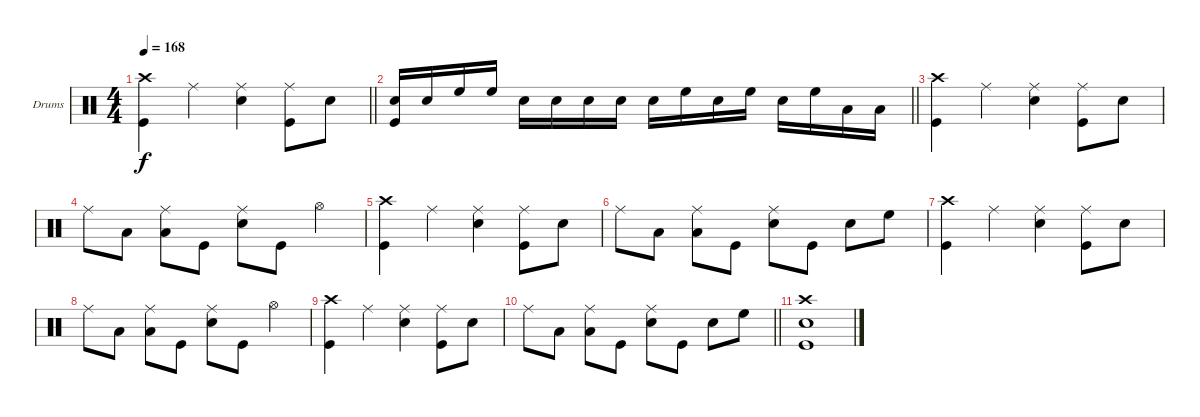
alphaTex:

\bracketExtendMode groupsimilarinstruments
\firstSystemTrackNameOrientation horizontal
\otherSystemsTrackNameOrientation horizontal
\track ("Drumkit" "Drums") {solo instrument percussion}
\staff {score}
\articulation defaults
\ts (4 4)
\tempo 168
\clef neutral
\barLineRight lightlight
\ks c
("Crash high (hit)" "Kick (hit)").4{dy f} "Ride (middle)".4 ("Ride (middle)" "Snare (hit) 2").4 ("Ride (middle)" "Kick (hit)").8 "Snare (hit) 2".8 |
\barLineRight lightlight
("Snare (hit) 2" "Kick (hit)").16 "Snare (hit) 2".16 "High Floor Tom (hit)".16 "High Floor Tom (hit)".16 "Snare (hit) 2".16 "Snare (hit) 2".16 "Snare (hit) 2".16 "Snare (hit) 2".16 "Snare (hit) 2".16 "High Floor Tom (hit)".16 "Snare (hit) 2".16 "High Floor Tom (hit)".16 "Snare (hit) 2".16 "High Floor Tom (hit)".16 "Low Tom (hit)".16 "Low Tom (hit)".16 |
\section ("" "")
("Crash high (hit)" "Kick (hit)").4 "Ride (middle)".4 ("Ride (middle)" "Snare (hit) 2").4 ("Ride (middle)" "Kick (hit)").8 "Snare (hit) 2".8 |
"Ride (middle)".8 "Low Tom (hit)".8 ("Ride (middle)" "Low Tom (hit)").8 "Kick (hit)".8 ("Ride (middle)" "Snare (hit) 2").8 "Kick (hit)".8 "Hi-Hat (open)".4 |
("Crash high (hit)" "Kick (hit)").4 "Ride (middle)".4 ("Ride (middle)" "Snare (hit) 2").4 ("Ride (middle)" "Kick (hit)").8 "Snare (hit) 2".8 |
"Ride (middle)".8 "Low Tom (hit)".8 ("Ride (middle)" "Low Tom (hit)").8 "Kick (hit)".8 ("Ride (middle)" "Snare (hit) 2").8 "Kick (hit)".8 "Snare (hit) 2".8 "High Floor Tom (hit)".8 |
("Crash high (hit)" "Kick (hit)").4 "Ride (middle)".4 ("Ride (middle)" "Snare (hit) 2").4 ("Ride (middle)" "Kick (hit)").8 "Snare (hit) 2".8 |
"Ride (middle)".8 "Low Tom (hit)".8 ("Ride (middle)" "Low Tom (hit)").8 "Kick (hit)".8 ("Ride (middle)" "Snare (hit) 2").8 "Kick (hit)".8 "Hi-Hat (open)".4 |
("Crash high (hit)" "Kick (hit)").4 "Ride (middle)".4 ("Ride (middle)" "Snare (hit) 2").4 ("Ride (middle)" "Kick (hit)").8 "Snare (hit) 2".8 |
\barLineRight lightlight "Ride (middle)".8 "Low Tom (hit)".8
("Ride (middle)" "Low Tom (hit)").8 "Kick (hit)".8 ("Ride (middle)" "Snare (hit) 2").8 "Kick (hit)".8 "Snare (hit) 2".8 "High Floor Tom (hit)".8 |
("Crash high (hit)" "Snare (hit) 2" "Kick (hit)").1
